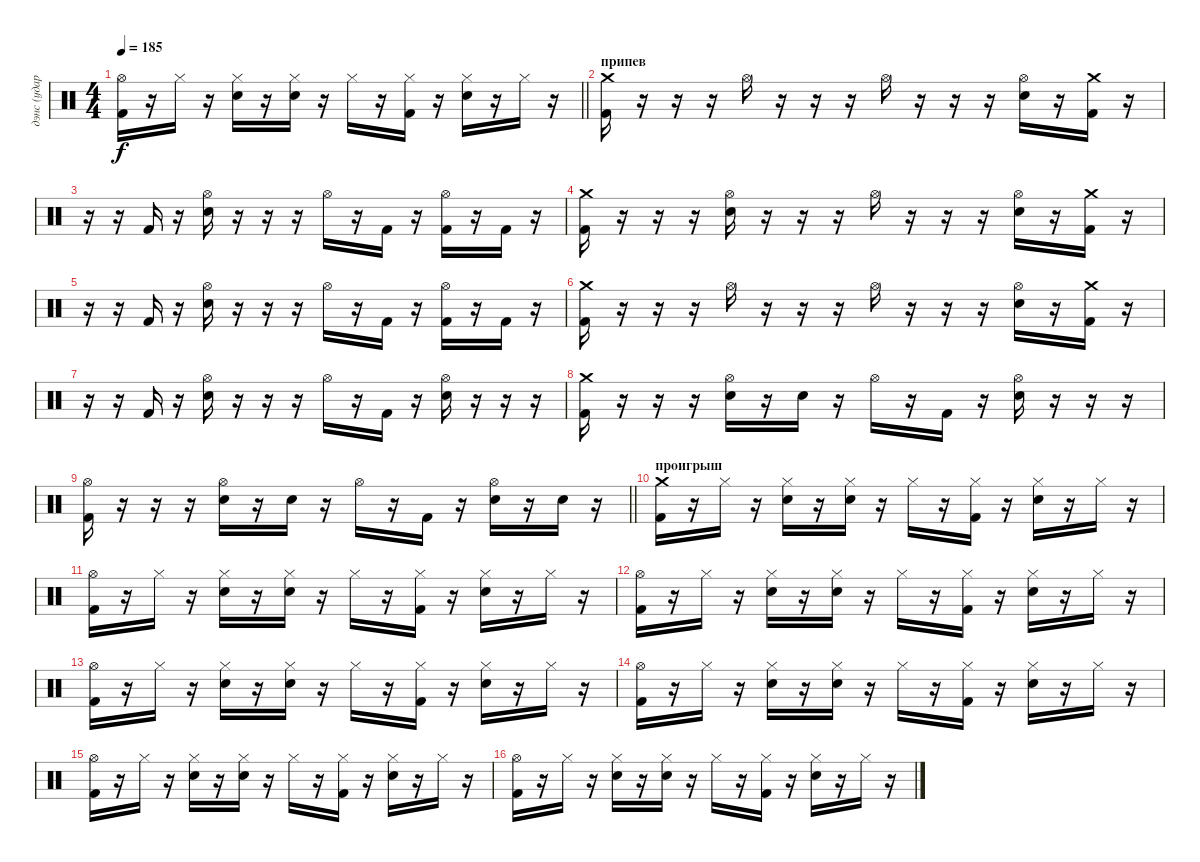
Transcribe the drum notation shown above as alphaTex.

\track ("дэнс (ударные)" "дэнс (удар") {instrument percussion}
\staff {score}
\articulation defaults
\ts (4 4)
\tempo 185
\clef neutral
\barLineRight lightlight
\ks c
("Kick (hit) 2" "Hi-Hat (open)").16{dy f} r.16 "Hi-Hat (closed)".16 r.16 ("Snare (hit) 2" "Hi-Hat (closed)").16 r.16 ("Snare (hit) 2" "Hi-Hat (closed)").16 r.16 "Hi-Hat (closed)".16 r.16 ("Kick (hit) 2" "Hi-Hat (closed)").16 r.16 ("Snare (hit) 2" "Hi-Hat (closed)").16 r.16 "Hi-Hat (closed)".16 r.16 |
\section ("" "припев")
("Kick (hit) 2" "Crash medium (hit)").16 r.16 r.16 r.16 "Hi-Hat (open)".16 r.16 r.16 r.16 "Hi-Hat (open)".16 r.16 r.16 r.16 ("Snare (hit) 2" "Hi-Hat (open)").16 r.16 ("Kick (hit) 2" "Crash medium (hit)").16 r.16 |
r.16 r.16 "Kick (hit) 2".16 r.16 ("Snare (hit) 2" "Hi-Hat (open)").16 r.16 r.16 r.16 "Hi-Hat (open)".16 r.16 "Kick (hit) 2".16 r.16 ("Kick (hit) 2" "Hi-Hat (open)").16 r.16 "Kick (hit) 2".16 r.16 |
("Kick (hit) 2" "Crash medium (hit)").16 r.16 r.16 r.16 ("Snare (hit) 2" "Hi-Hat (open)").16 r.16 r.16 r.16 "Hi-Hat (open)".16 r.16 r.16 r.16 ("Snare (hit) 2" "Hi-Hat (open)").16 r.16 ("Kick (hit) 2" "Crash medium (hit)").16 r.16 |
r.16 r.16 "Kick (hit) 2".16 r.16 ("Snare (hit) 2" "Hi-Hat (open)").16 r.16 r.16 r.16 "Hi-Hat (open)".16 r.16 "Kick (hit) 2".16 r.16 ("Kick (hit) 2" "Hi-Hat (open)").16 r.16 "Kick (hit) 2".16 r.16 |
("Kick (hit) 2" "Crash medium (hit)").16 r.16 r.16 r.16 "Hi-Hat (open)".16 r.16 r.16 r.16 "Hi-Hat (open)".16 r.16 r.16 r.16 ("Snare (hit) 2" "Hi-Hat (open)").16 r.16 ("Kick (hit) 2" "Crash medium (hit)").16 r.16 |
r.16 r.16 "Kick (hit) 2".16 r.16 ("Snare (hit) 2" "Hi-Hat (open)").16 r.16 r.16 r.16 "Hi-Hat (open)".16 r.16 "Kick (hit) 2".16 r.16 ("Snare (hit) 2" "Hi-Hat (open)").16 r.16 r.16 r.16 |
("Kick (hit) 2" "Crash medium (hit)").16 r.16 r.16 r.16 ("Snare (hit) 2" "Hi-Hat (open)").16 r.16 "Snare (hit) 2".16 r.16 "Hi-Hat (open)".16 r.16 "Kick (hit) 2".16 r.16 ("Snare (hit) 2" "Hi-Hat (open)").16 r.16 r.16 r.16 |
\barLineRight lightlight
("Kick (hit) 2" "Hi-Hat (open)").16 r.16 r.16 r.16 ("Snare (hit) 2" "Hi-Hat (open)").16 r.16 "Snare (hit) 2".16 r.16 "Hi-Hat (open)".16 r.16 "Kick (hit) 2".16 r.16 ("Snare (hit) 2" "Hi-Hat (open)").16 r.16 "Snare (hit) 2".16 r.16 |
\section ("" "проигрыш")
("Kick (hit) 2" "Crash medium (hit)").16 r.16 "Hi-Hat (closed)".16 r.16 ("Snare (hit) 2" "Hi-Hat (closed)").16 r.16 ("Snare (hit) 2" "Hi-Hat (closed)").16 r.16 "Hi-Hat (closed)".16 r.16 ("Kick (hit) 2" "Hi-Hat (closed)").16 r.16 ("Snare (hit) 2" "Hi-Hat (closed)").16 r.16 "Hi-Hat (closed)".16 r.16 |
("Kick (hit) 2" "Hi-Hat (open)").16 r.16 "Hi-Hat (closed)".16 r.16 ("Snare (hit) 2" "Hi-Hat (closed)").16 r.16 ("Snare (hit) 2" "Hi-Hat (closed)").16 r.16 "Hi-Hat (closed)".16 r.16 ("Kick (hit) 2" "Hi-Hat (closed)").16 r.16 ("Snare (hit) 2" "Hi-Hat (closed)").16 r.16 "Hi-Hat (closed)".16 r.16 |
("Kick (hit) 2" "Hi-Hat (open)").16 r.16 "Hi-Hat (closed)".16 r.16 ("Snare (hit) 2" "Hi-Hat (closed)").16 r.16 ("Snare (hit) 2" "Hi-Hat (closed)").16 r.16 "Hi-Hat (closed)".16 r.16 ("Kick (hit) 2" "Hi-Hat (closed)").16 r.16 ("Snare (hit) 2" "Hi-Hat (closed)").16 r.16 "Hi-Hat (closed)".16 r.16 |
("Kick (hit) 2" "Hi-Hat (open)").16 r.16 "Hi-Hat (closed)".16 r.16 ("Snare (hit) 2" "Hi-Hat (closed)").16 r.16 ("Snare (hit) 2" "Hi-Hat (closed)").16 r.16 "Hi-Hat (closed)".16 r.16 ("Kick (hit) 2" "Hi-Hat (closed)").16 r.16 ("Snare (hit) 2" "Hi-Hat (closed)").16 r.16 "Hi-Hat (closed)".16 r.16 |
("Kick (hit) 2" "Hi-Hat (open)").16 r.16 "Hi-Hat (closed)".16 r.16 ("Snare (hit) 2" "Hi-Hat (closed)").16 r.16 ("Snare (hit) 2" "Hi-Hat (closed)").16 r.16 "Hi-Hat (closed)".16 r.16 ("Kick (hit) 2" "Hi-Hat (closed)").16 r.16 ("Snare (hit) 2" "Hi-Hat (closed)").16 r.16 "Hi-Hat (closed)".16 r.16 |
("Kick (hit) 2" "Hi-Hat (open)").16 r.16 "Hi-Hat (closed)".16 r.16 ("Snare (hit) 2" "Hi-Hat (closed)").16 r.16 ("Snare (hit) 2" "Hi-Hat (closed)").16 r.16 "Hi-Hat (closed)".16 r.16 ("Kick (hit) 2" "Hi-Hat (closed)").16 r.16 ("Snare (hit) 2" "Hi-Hat (closed)").16 r.16 "Hi-Hat (closed)".16 r.16 |
("Kick (hit) 2" "Hi-Hat (open)").16 r.16 "Hi-Hat (closed)".16 r.16 ("Snare (hit) 2" "Hi-Hat (closed)").16 r.16 ("Snare (hit) 2" "Hi-Hat (closed)").16 r.16 "Hi-Hat (closed)".16 r.16 ("Kick (hit) 2" "Hi-Hat (closed)").16 r.16 ("Snare (hit) 2" "Hi-Hat (closed)").16 r.16 "Hi-Hat (closed)".16 r.16
